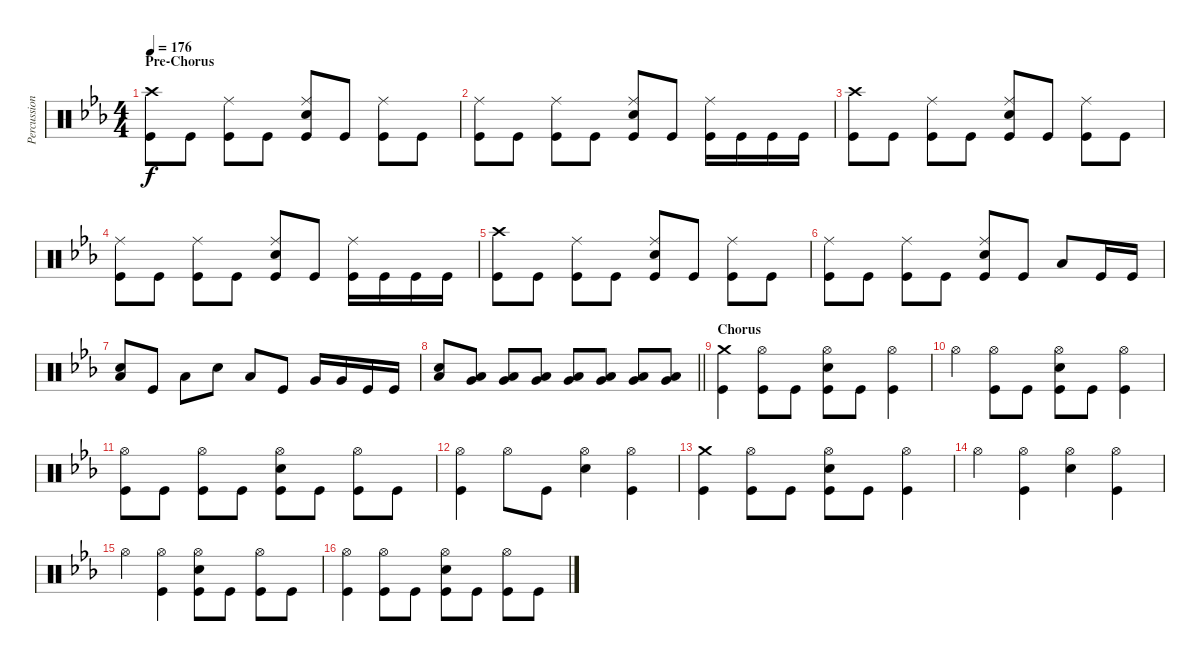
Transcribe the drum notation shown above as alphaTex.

\track ("Percussion" "Percussion") {instrument percussion}
\staff {score}
\articulation defaults
\ts (4 4)
\section ("" "Pre-Chorus")
\tempo 176
\clef neutral
\ks eb
("Crash high (hit)" "Kick (hit)").8{dy f} "Kick (hit)".8 ("Ride (middle)" "Kick (hit)").8 "Kick (hit)".8 ("Ride (middle)" "Electric Snare (hit)" "Kick (hit)").8 "Kick (hit)".8 ("Ride (middle)" "Kick (hit)").8 "Kick (hit)".8 |
("Ride (middle)" "Kick (hit)").8 "Kick (hit)".8 ("Ride (middle)" "Kick (hit)").8 "Kick (hit)".8 ("Ride (middle)" "Electric Snare (hit)" "Kick (hit)").8 "Kick (hit)".8 ("Ride (middle)" "Kick (hit)").16 "Kick (hit)".16 "Kick (hit)".16 "Kick (hit)".16 |
("Crash high (hit)" "Kick (hit)").8 "Kick (hit)".8 ("Ride (middle)" "Kick (hit)").8 "Kick (hit)".8 ("Ride (middle)" "Electric Snare (hit)" "Kick (hit)").8 "Kick (hit)".8 ("Ride (middle)" "Kick (hit)").8 "Kick (hit)".8 |
("Ride (middle)" "Kick (hit)").8 "Kick (hit)".8 ("Ride (middle)" "Kick (hit)").8 "Kick (hit)".8 ("Ride (middle)" "Electric Snare (hit)" "Kick (hit)").8 "Kick (hit)".8 ("Ride (middle)" "Kick (hit)").16 "Kick (hit)".16 "Kick (hit)".16 "Kick (hit)".16 |
("Crash high (hit)" "Kick (hit)").8 "Kick (hit)".8 ("Ride (middle)" "Kick (hit)").8 "Kick (hit)".8 ("Ride (middle)" "Electric Snare (hit)" "Kick (hit)").8 "Kick (hit)".8 ("Ride (middle)" "Kick (hit)").8 "Kick (hit)".8 |
("Ride (middle)" "Kick (hit)").8 "Kick (hit)".8 ("Ride (middle)" "Kick (hit)").8 "Kick (hit)".8 ("Ride (middle)" "Electric Snare (hit)" "Kick (hit)").8 "Kick (hit)".8 "Low Tom (hit)".8 "Kick (hit)".16 "Kick (hit)".16 |
("Low Tom (hit)" "Electric Snare (hit)").8 "Kick (hit)".8 "Low Tom (hit)".8 "Electric Snare (hit)".8 "Low Tom (hit)".8 "Kick (hit)".8 "Very Low Tom (hit)".16 "Very Low Tom (hit)".16 "Kick (hit)".16 "Kick (hit)".16 |
\barLineRight lightlight
("Low Floor Tom (hit)" "Electric Snare (hit)").8 ("Very Low Tom (hit)" "Low Floor Tom (hit)").8 ("Very Low Tom (hit)" "Low Floor Tom (hit)").8 ("Very Low Tom (hit)" "Low Floor Tom (hit)").8 ("Very Low Tom (hit)" "Low Floor Tom (hit)").8 ("Very Low Tom (hit)" "Low Floor Tom (hit)").8 ("Very Low Tom (hit)" "Low Floor Tom (hit)").8 ("Very Low Tom (hit)" "Low Floor Tom (hit)").8 |
\section ("" "Chorus")
("Crash medium (hit)" "Kick (hit)").4 ("Hi-Hat (open)" "Kick (hit)").8 "Kick (hit)".8 ("Hi-Hat (open)" "Electric Snare (hit)" "Kick (hit)").8 "Kick (hit)".8 ("Hi-Hat (open)" "Kick (hit)").4 |
"Hi-Hat (open)".4 ("Hi-Hat (open)" "Kick (hit)").8 "Kick (hit)".8 ("Hi-Hat (open)" "Electric Snare (hit)" "Kick (hit)").8 "Kick (hit)".8 ("Hi-Hat (open)" "Kick (hit)").4 |
("Hi-Hat (open)" "Kick (hit)").8 "Kick (hit)".8 ("Hi-Hat (open)" "Kick (hit)").8 "Kick (hit)".8 ("Hi-Hat (open)" "Electric Snare (hit)" "Kick (hit)").8 "Kick (hit)".8 ("Hi-Hat (open)" "Kick (hit)").8 "Kick (hit)".8 |
("Hi-Hat (open)" "Kick (hit)").4 "Hi-Hat (open)".8 "Kick (hit)".8 ("Hi-Hat (open)" "Electric Snare (hit)").4 ("Hi-Hat (open)" "Kick (hit)").4 |
("Crash medium (hit)" "Kick (hit)").4 ("Hi-Hat (open)" "Kick (hit)").8 "Kick (hit)".8 ("Hi-Hat (open)" "Electric Snare (hit)" "Kick (hit)").8 "Kick (hit)".8 ("Hi-Hat (open)" "Kick (hit)").4 |
"Hi-Hat (open)".4 ("Hi-Hat (open)" "Kick (hit)").4 ("Hi-Hat (open)" "Electric Snare (hit)").4 ("Hi-Hat (open)" "Kick (hit)").4 |
"Hi-Hat (open)".4 ("Hi-Hat (open)" "Kick (hit)").4 ("Hi-Hat (open)" "Electric Snare (hit)" "Kick (hit)").8 "Kick (hit)".8 ("Hi-Hat (open)" "Kick (hit)").8 "Kick (hit)".8 |
("Hi-Hat (open)" "Kick (hit)").4 ("Hi-Hat (open)" "Kick (hit)").8 "Kick (hit)".8 ("Hi-Hat (open)" "Electric Snare (hit)" "Kick (hit)").8 "Kick (hit)".8 ("Hi-Hat (open)" "Kick (hit)").8 "Kick (hit)".8
